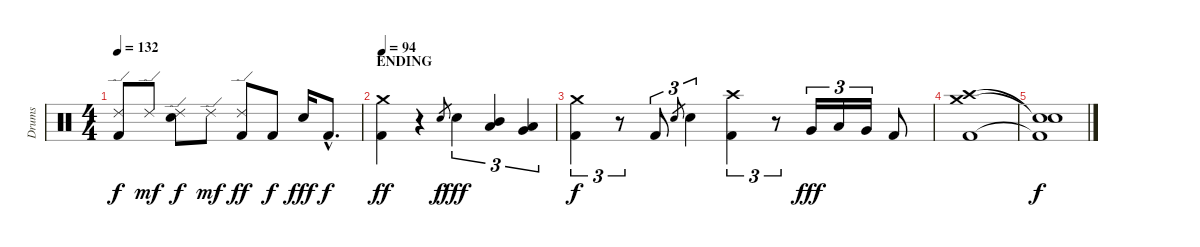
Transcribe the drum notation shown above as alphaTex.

\track ("Drums" "Drums") {instrument percussion}
\staff {score}
\articulation defaults
\ts (4 4)
\tempo 132
\clef neutral
\ks c
("Ride (edge) 2" "Kick (hit) 2").8{dy f} "Ride (edge) 2".8{dy mf} ("Ride (edge) 2" "Electric Snare (hit)").8{dy f} "Ride (edge) 2".8{dy mf} ("Ride (edge) 2" "Kick (hit) 2").8{dy ff} "Kick (hit) 2".8{dy f} "Electric Snare (hit)".16{dy fff} "Kick (hit) 2"{hac}.8{d dy f} |
\section ("" "ENDING")
\tempo 94
("Crash medium (hit)" "Kick (hit) 2").4{dy ff} r.4 "Electric Snare (hit)"{h}.8{gr dy f} "Electric Snare (hit)".4{tu (3 2) dy fff} ("Mid Tom (hit)" "Low Tom (hit)").4{tu (3 2)} ("Low Tom (hit)" "Very Low Tom (hit)").4{tu (3 2)} |
("Crash medium (hit)" "Kick (hit) 2").4{tu (3 2) dy f} r.8{tu (3 2)} "Kick (hit) 2".8{tu (3 2)} "Electric Snare (hit)".8{gr} "Electric Snare (hit)".4{tu (3 2)} ("Crash high (hit)" "Kick (hit) 2").4{tu (3 2)} r.8{tu (3 2)} "Very Low Tom (hit)".16{tu (3 2) dy fff} "Low Tom (hit)".16{tu (3 2)} "Very Low Tom (hit)".16{tu (3 2)} "Kick (hit) 2".8 |
("Crash medium (hit)" "Crash high (hit)" "Kick (hit) 2").1 |
("Snare (hit)"{t} "Snare (hit)"{t} "Kick (hit) 2"{t}).1{dy f}
